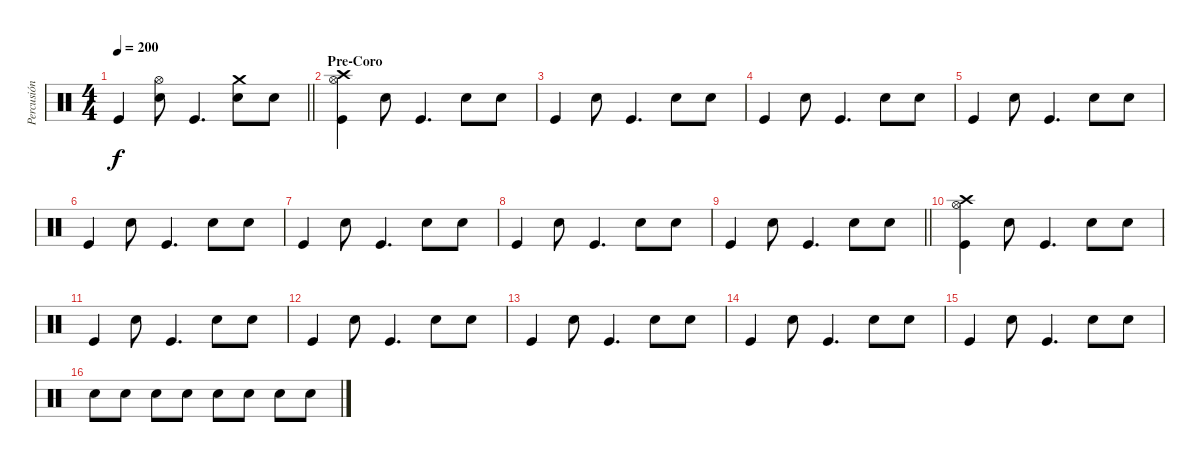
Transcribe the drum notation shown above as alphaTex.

\track ("Percusión" "Percusión") {instrument percussion}
\staff {score}
\articulation defaults
\ts (4 4)
\tempo 200
\clef neutral
\barLineRight lightlight
\ks c "Kick (hit)".4{dy f}
("Hi-Hat (open)" "Snare (hit) 2").8 "Kick (hit)".4{d} ("Crash medium (hit)" "Snare (hit) 2").8 "Snare (hit) 2".8 |
\section ("" "Pre-Coro")
("Hi-Hat (open)" "Crash high (hit)" "Kick (hit)").4 "Snare (hit) 2".8 "Kick (hit)".4{d} "Snare (hit) 2".8 "Snare (hit) 2".8 |
"Kick (hit)".4 "Snare (hit) 2".8 "Kick (hit)".4{d} "Snare (hit) 2".8 "Snare (hit) 2".8 |
"Kick (hit)".4 "Snare (hit) 2".8 "Kick (hit)".4{d} "Snare (hit) 2".8 "Snare (hit) 2".8 |
"Kick (hit)".4 "Snare (hit) 2".8 "Kick (hit)".4{d} "Snare (hit) 2".8 "Snare (hit) 2".8 |
"Kick (hit)".4 "Snare (hit) 2".8 "Kick (hit)".4{d} "Snare (hit) 2".8 "Snare (hit) 2".8 |
"Kick (hit)".4 "Snare (hit) 2".8 "Kick (hit)".4{d} "Snare (hit) 2".8 "Snare (hit) 2".8 |
"Kick (hit)".4 "Snare (hit) 2".8 "Kick (hit)".4{d} "Snare (hit) 2".8 "Snare (hit) 2".8 |
\barLineRight lightlight "Kick (hit)".4 "Snare (hit) 2".8 "Kick (hit)".4{d} "Snare (hit) 2".8 "Snare (hit) 2".8
|
\section ("" "")
("Hi-Hat (open)" "Crash high (hit)" "Kick (hit)").4 "Snare (hit) 2".8 "Kick (hit)".4{d} "Snare (hit) 2".8 "Snare (hit) 2".8 |
"Kick (hit)".4 "Snare (hit) 2".8 "Kick (hit)".4{d} "Snare (hit) 2".8 "Snare (hit) 2".8 |
"Kick (hit)".4 "Snare (hit) 2".8 "Kick (hit)".4{d} "Snare (hit) 2".8 "Snare (hit) 2".8 |
"Kick (hit)".4 "Snare (hit) 2".8 "Kick (hit)".4{d} "Snare (hit) 2".8 "Snare (hit) 2".8 |
"Kick (hit)".4 "Snare (hit) 2".8 "Kick (hit)".4{d} "Snare (hit) 2".8 "Snare (hit) 2".8 |
"Kick (hit)".4 "Snare (hit) 2".8 "Kick (hit)".4{d} "Snare (hit) 2".8 "Snare (hit) 2".8 |
"Snare (hit) 2".8 "Snare (hit) 2".8 "Snare (hit) 2".8 "Snare (hit) 2".8 "Snare (hit) 2".8 "Snare (hit) 2".8 "Snare (hit) 2".8 "Snare (hit) 2".8
